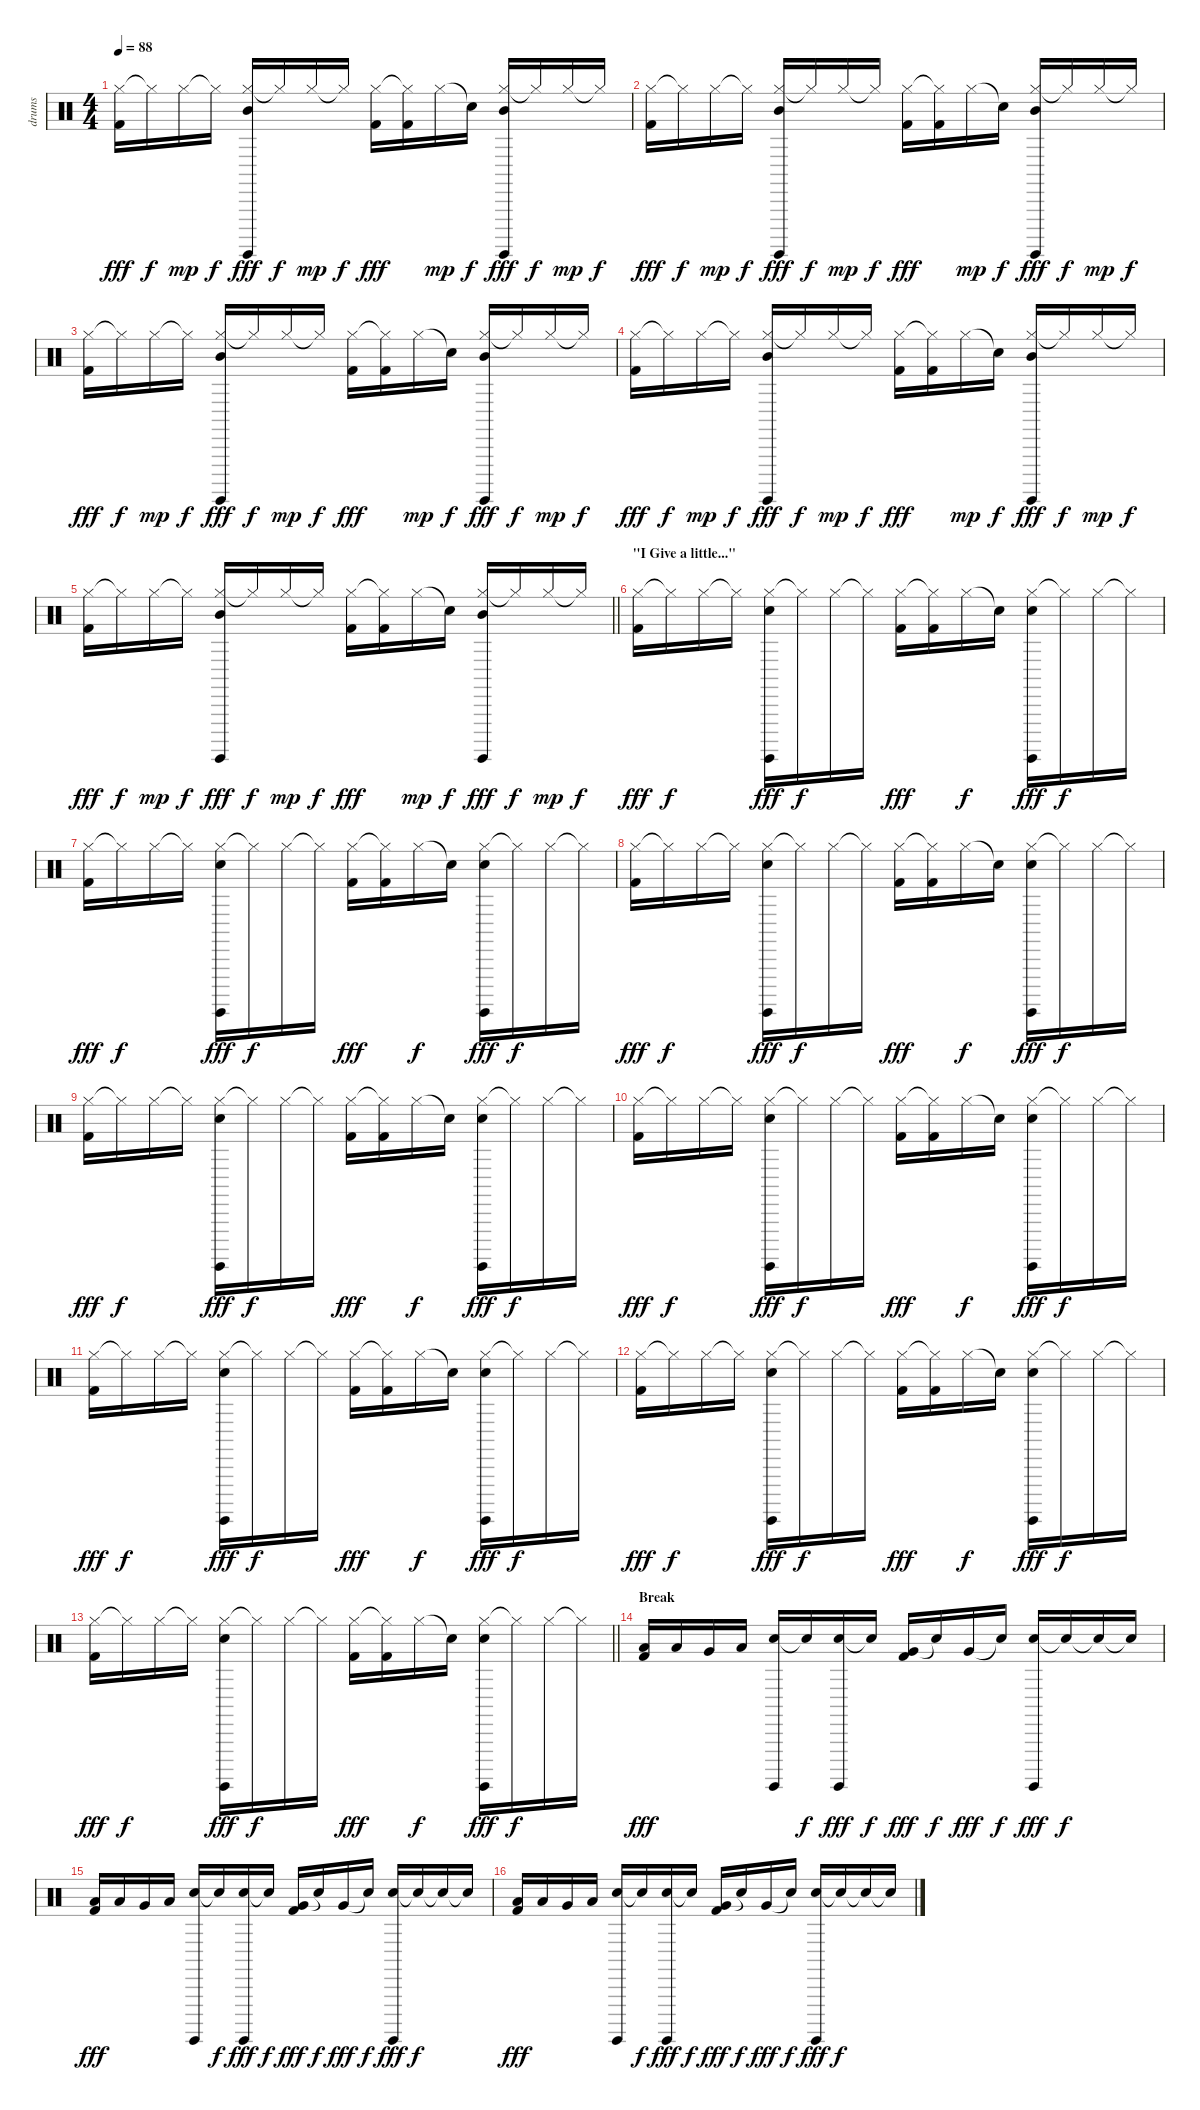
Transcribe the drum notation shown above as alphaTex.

\track ("drums" "drums") {instrument percussion}
\staff {score}
\articulation defaults
\ts (4 4)
\tempo 88
\clef neutral
\ks c
("Hi-Hat (closed)" "Kick (hit) 2").16{dy fff} "Hi-Hat (closed)"{t}.16{dy f} "Hi-Hat (closed)".16{dy mp} "Hi-Hat (closed)"{t}.16{dy f} ("Hi-Hat (closed)" "Mid Tom (hit)" "Surdo (hit)").16{dy fff} "Hi-Hat (closed)"{t}.16{dy f} "Hi-Hat (closed)".16{dy mp} "Hi-Hat (closed)"{t}.16{dy f} ("Hi-Hat (closed)" "Kick (hit) 2").16{dy fff} ("Hi-Hat (closed)"{t} "Kick (hit) 2").16 "Hi-Hat (closed)".16{dy mp} "Snare (hit)"{t}.16{dy f} ("Hi-Hat (closed)" "Mid Tom (hit)" "Surdo (hit)").16{dy fff} "Hi-Hat (closed)"{t}.16{dy f} "Hi-Hat (closed)".16{dy mp} "Hi-Hat (closed)"{t}.16{dy f} |
("Hi-Hat (closed)" "Kick (hit) 2").16{dy fff} "Hi-Hat (closed)"{t}.16{dy f} "Hi-Hat (closed)".16{dy mp} "Hi-Hat (closed)"{t}.16{dy f} ("Hi-Hat (closed)" "Mid Tom (hit)" "Surdo (hit)").16{dy fff} "Hi-Hat (closed)"{t}.16{dy f} "Hi-Hat (closed)".16{dy mp} "Hi-Hat (closed)"{t}.16{dy f} ("Hi-Hat (closed)" "Kick (hit) 2").16{dy fff} ("Hi-Hat (closed)"{t} "Kick (hit) 2").16 "Hi-Hat (closed)".16{dy mp} "Snare (hit)"{t}.16{dy f} ("Hi-Hat (closed)" "Mid Tom (hit)" "Surdo (hit)").16{dy fff} "Hi-Hat (closed)"{t}.16{dy f} "Hi-Hat (closed)".16{dy mp} "Hi-Hat (closed)"{t}.16{dy f} |
("Hi-Hat (closed)" "Kick (hit) 2").16{dy fff} "Hi-Hat (closed)"{t}.16{dy f} "Hi-Hat (closed)".16{dy mp} "Hi-Hat (closed)"{t}.16{dy f} ("Hi-Hat (closed)" "Mid Tom (hit)" "Surdo (hit)").16{dy fff} "Hi-Hat (closed)"{t}.16{dy f} "Hi-Hat (closed)".16{dy mp} "Hi-Hat (closed)"{t}.16{dy f} ("Hi-Hat (closed)" "Kick (hit) 2").16{dy fff} ("Hi-Hat (closed)"{t} "Kick (hit) 2").16 "Hi-Hat (closed)".16{dy mp} "Snare (hit)"{t}.16{dy f} ("Hi-Hat (closed)" "Mid Tom (hit)" "Surdo (hit)").16{dy fff} "Hi-Hat (closed)"{t}.16{dy f} "Hi-Hat (closed)".16{dy mp} "Hi-Hat (closed)"{t}.16{dy f} |
("Hi-Hat (closed)" "Kick (hit) 2").16{dy fff} "Hi-Hat (closed)"{t}.16{dy f} "Hi-Hat (closed)".16{dy mp} "Hi-Hat (closed)"{t}.16{dy f} ("Hi-Hat (closed)" "Mid Tom (hit)" "Surdo (hit)").16{dy fff} "Hi-Hat (closed)"{t}.16{dy f} "Hi-Hat (closed)".16{dy mp} "Hi-Hat (closed)"{t}.16{dy f} ("Hi-Hat (closed)" "Kick (hit) 2").16{dy fff} ("Hi-Hat (closed)"{t} "Kick (hit) 2").16 "Hi-Hat (closed)".16{dy mp} "Snare (hit)"{t}.16{dy f} ("Hi-Hat (closed)" "Mid Tom (hit)" "Surdo (hit)").16{dy fff} "Hi-Hat (closed)"{t}.16{dy f} "Hi-Hat (closed)".16{dy mp} "Hi-Hat (closed)"{t}.16{dy f} |
\barLineRight lightlight
("Hi-Hat (closed)" "Kick (hit) 2").16{dy fff} "Hi-Hat (closed)"{t}.16{dy f} "Hi-Hat (closed)".16{dy mp} "Hi-Hat (closed)"{t}.16{dy f} ("Hi-Hat (closed)" "Mid Tom (hit)" "Surdo (hit)").16{dy fff} "Hi-Hat (closed)"{t}.16{dy f} "Hi-Hat (closed)".16{dy mp} "Hi-Hat (closed)"{t}.16{dy f} ("Hi-Hat (closed)" "Kick (hit) 2").16{dy fff} ("Hi-Hat (closed)"{t} "Kick (hit) 2").16 "Hi-Hat (closed)".16{dy mp} "Snare (hit)"{t}.16{dy f} ("Hi-Hat (closed)" "Mid Tom (hit)" "Surdo (hit)").16{dy fff} "Hi-Hat (closed)"{t}.16{dy f} "Hi-Hat (closed)".16{dy mp} "Hi-Hat (closed)"{t}.16{dy f} |
\section ("" "\"I Give a little...\"")
("Hi-Hat (closed)" "Kick (hit) 2").16{dy fff} "Hi-Hat (closed)"{t}.16{dy f} "Hi-Hat (closed)".16 "Hi-Hat (closed)"{t}.16 ("Hi-Hat (closed)" "Snare (hit) 2" "Surdo (hit)").16{dy fff} "Hi-Hat (closed)"{t}.16{dy f} "Hi-Hat (closed)".16 "Hi-Hat (closed)"{t}.16 ("Hi-Hat (closed)" "Kick (hit) 2").16{dy fff} ("Hi-Hat (closed)"{t} "Kick (hit) 2").16 "Hi-Hat (closed)".16{dy f} "Snare (hit)"{t}.16 ("Hi-Hat (closed)" "Snare (hit) 2" "Surdo (hit)").16{dy fff} "Hi-Hat (closed)"{t}.16{dy f} "Hi-Hat (closed)".16 "Hi-Hat (closed)"{t}.16 |
("Hi-Hat (closed)" "Kick (hit) 2").16{dy fff} "Hi-Hat (closed)"{t}.16{dy f} "Hi-Hat (closed)".16 "Hi-Hat (closed)"{t}.16 ("Hi-Hat (closed)" "Snare (hit) 2" "Surdo (hit)").16{dy fff} "Hi-Hat (closed)"{t}.16{dy f} "Hi-Hat (closed)".16 "Hi-Hat (closed)"{t}.16 ("Hi-Hat (closed)" "Kick (hit) 2").16{dy fff} ("Hi-Hat (closed)"{t} "Kick (hit) 2").16 "Hi-Hat (closed)".16{dy f} "Snare (hit)"{t}.16 ("Hi-Hat (closed)" "Snare (hit) 2" "Surdo (hit)").16{dy fff} "Hi-Hat (closed)"{t}.16{dy f} "Hi-Hat (closed)".16 "Hi-Hat (closed)"{t}.16 |
("Hi-Hat (closed)" "Kick (hit) 2").16{dy fff} "Hi-Hat (closed)"{t}.16{dy f} "Hi-Hat (closed)".16 "Hi-Hat (closed)"{t}.16 ("Hi-Hat (closed)" "Snare (hit) 2" "Surdo (hit)").16{dy fff} "Hi-Hat (closed)"{t}.16{dy f} "Hi-Hat (closed)".16 "Hi-Hat (closed)"{t}.16 ("Hi-Hat (closed)" "Kick (hit) 2").16{dy fff} ("Hi-Hat (closed)"{t} "Kick (hit) 2").16 "Hi-Hat (closed)".16{dy f} "Snare (hit)"{t}.16 ("Hi-Hat (closed)" "Snare (hit) 2" "Surdo (hit)").16{dy fff} "Hi-Hat (closed)"{t}.16{dy f} "Hi-Hat (closed)".16 "Hi-Hat (closed)"{t}.16 |
("Hi-Hat (closed)" "Kick (hit) 2").16{dy fff} "Hi-Hat (closed)"{t}.16{dy f} "Hi-Hat (closed)".16 "Hi-Hat (closed)"{t}.16 ("Hi-Hat (closed)" "Snare (hit) 2" "Surdo (hit)").16{dy fff} "Hi-Hat (closed)"{t}.16{dy f} "Hi-Hat (closed)".16 "Hi-Hat (closed)"{t}.16 ("Hi-Hat (closed)" "Kick (hit) 2").16{dy fff} ("Hi-Hat (closed)"{t} "Kick (hit) 2").16 "Hi-Hat (closed)".16{dy f} "Snare (hit)"{t}.16 ("Hi-Hat (closed)" "Snare (hit) 2" "Surdo (hit)").16{dy fff} "Hi-Hat (closed)"{t}.16{dy f} "Hi-Hat (closed)".16 "Hi-Hat (closed)"{t}.16 |
("Hi-Hat (closed)" "Kick (hit) 2").16{dy fff} "Hi-Hat (closed)"{t}.16{dy f} "Hi-Hat (closed)".16 "Hi-Hat (closed)"{t}.16 ("Hi-Hat (closed)" "Snare (hit) 2" "Surdo (hit)").16{dy fff} "Hi-Hat (closed)"{t}.16{dy f} "Hi-Hat (closed)".16 "Hi-Hat (closed)"{t}.16 ("Hi-Hat (closed)" "Kick (hit) 2").16{dy fff} ("Hi-Hat (closed)"{t} "Kick (hit) 2").16 "Hi-Hat (closed)".16{dy f} "Snare (hit)"{t}.16 ("Hi-Hat (closed)" "Snare (hit) 2" "Surdo (hit)").16{dy fff} "Hi-Hat (closed)"{t}.16{dy f} "Hi-Hat (closed)".16 "Hi-Hat (closed)"{t}.16 |
("Hi-Hat (closed)" "Kick (hit) 2").16{dy fff} "Hi-Hat (closed)"{t}.16{dy f} "Hi-Hat (closed)".16 "Hi-Hat (closed)"{t}.16 ("Hi-Hat (closed)" "Snare (hit) 2" "Surdo (hit)").16{dy fff} "Hi-Hat (closed)"{t}.16{dy f} "Hi-Hat (closed)".16 "Hi-Hat (closed)"{t}.16 ("Hi-Hat (closed)" "Kick (hit) 2").16{dy fff} ("Hi-Hat (closed)"{t} "Kick (hit) 2").16 "Hi-Hat (closed)".16{dy f} "Snare (hit)"{t}.16 ("Hi-Hat (closed)" "Snare (hit) 2" "Surdo (hit)").16{dy fff} "Hi-Hat (closed)"{t}.16{dy f} "Hi-Hat (closed)".16 "Hi-Hat (closed)"{t}.16 |
("Hi-Hat (closed)" "Kick (hit) 2").16{dy fff} "Hi-Hat (closed)"{t}.16{dy f} "Hi-Hat (closed)".16 "Hi-Hat (closed)"{t}.16 ("Hi-Hat (closed)" "Snare (hit) 2" "Surdo (hit)").16{dy fff} "Hi-Hat (closed)"{t}.16{dy f} "Hi-Hat (closed)".16 "Hi-Hat (closed)"{t}.16 ("Hi-Hat (closed)" "Kick (hit) 2").16{dy fff} ("Hi-Hat (closed)"{t} "Kick (hit) 2").16 "Hi-Hat (closed)".16{dy f} "Snare (hit)"{t}.16 ("Hi-Hat (closed)" "Snare (hit) 2" "Surdo (hit)").16{dy fff} "Hi-Hat (closed)"{t}.16{dy f} "Hi-Hat (closed)".16 "Hi-Hat (closed)"{t}.16 |
\barLineRight lightlight
("Hi-Hat (closed)" "Kick (hit) 2").16{dy fff} "Hi-Hat (closed)"{t}.16{dy f} "Hi-Hat (closed)".16 "Hi-Hat (closed)"{t}.16 ("Hi-Hat (closed)" "Snare (hit) 2" "Surdo (hit)").16{dy fff} "Hi-Hat (closed)"{t}.16{dy f} "Hi-Hat (closed)".16 "Hi-Hat (closed)"{t}.16 ("Hi-Hat (closed)" "Kick (hit) 2").16{dy fff} ("Hi-Hat (closed)"{t} "Kick (hit) 2").16 "Hi-Hat (closed)".16{dy f} "Snare (hit)"{t}.16 ("Hi-Hat (closed)" "Snare (hit) 2" "Surdo (hit)").16{dy fff} "Hi-Hat (closed)"{t}.16{dy f} "Hi-Hat (closed)".16 "Hi-Hat (closed)"{t}.16 |
\section ("" "Break")
("Low Tom (hit)" "Kick (hit) 2").16{dy fff} "Low Tom (hit)".16 "Very Low Tom (hit)".16 "Low Tom (hit)".16 ("Electric Snare (hit)" "Surdo (hit)").16 "Snare (hit)"{t}.16{dy f} ("Electric Snare (hit)" "Surdo (hit)").16{dy fff} "Snare (hit)"{t}.16{dy f} ("Very Low Tom (hit)" "Kick (hit) 2").16{dy fff} "Snare (hit)"{t}.16{dy f} "Very Low Tom (hit)".16{dy fff} "Snare (hit)"{t}.16{dy f} ("Electric Snare (hit)" "Surdo (hit)").16{dy fff} "Snare (hit)"{t}.16{dy f} "Snare (hit)"{t}.16 "Snare (hit)"{t}.16 |
("Low Tom (hit)" "Kick (hit) 2").16{dy fff} "Low Tom (hit)".16 "Very Low Tom (hit)".16 "Low Tom (hit)".16 ("Electric Snare (hit)" "Surdo (hit)").16 "Snare (hit)"{t}.16{dy f} ("Electric Snare (hit)" "Surdo (hit)").16{dy fff} "Snare (hit)"{t}.16{dy f} ("Very Low Tom (hit)" "Kick (hit) 2").16{dy fff} "Snare (hit)"{t}.16{dy f} "Very Low Tom (hit)".16{dy fff} "Snare (hit)"{t}.16{dy f} ("Electric Snare (hit)" "Surdo (hit)").16{dy fff} "Snare (hit)"{t}.16{dy f} "Snare (hit)"{t}.16 "Snare (hit)"{t}.16 |
("Low Tom (hit)" "Kick (hit) 2").16{dy fff} "Low Tom (hit)".16 "Very Low Tom (hit)".16 "Low Tom (hit)".16 ("Electric Snare (hit)" "Surdo (hit)").16 "Snare (hit)"{t}.16{dy f} ("Electric Snare (hit)" "Surdo (hit)").16{dy fff} "Snare (hit)"{t}.16{dy f} ("Very Low Tom (hit)" "Kick (hit) 2").16{dy fff} "Snare (hit)"{t}.16{dy f} "Very Low Tom (hit)".16{dy fff} "Snare (hit)"{t}.16{dy f} ("Electric Snare (hit)" "Surdo (hit)").16{dy fff} "Snare (hit)"{t}.16{dy f} "Snare (hit)"{t}.16 "Snare (hit)"{t}.16
